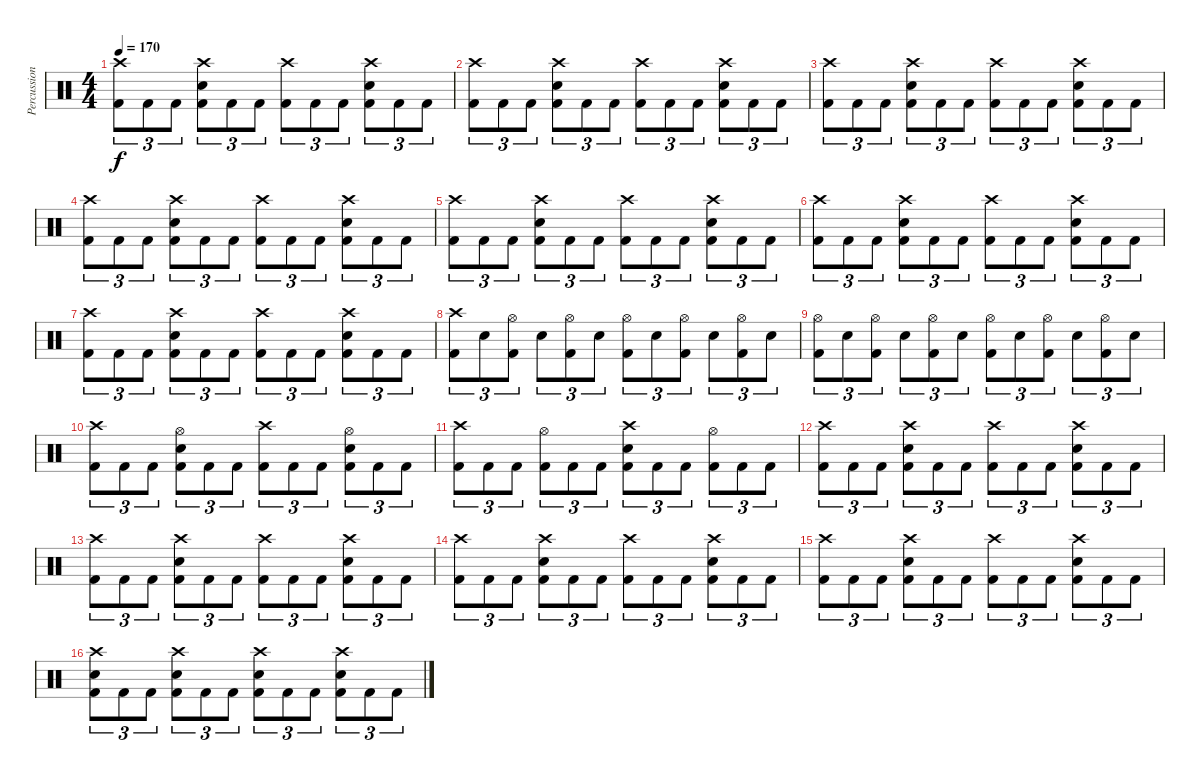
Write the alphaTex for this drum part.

\track ("Percussion" "Percussion") {instrument percussion}
\staff {score}
\articulation defaults
\ts (4 4)
\tempo 170
\clef neutral
\ks c
("Crash high (hit)" "Kick (hit) 2").8{tu (3 2) dy f} "Kick (hit) 2".8{tu (3 2)} "Kick (hit) 2".8{tu (3 2)} ("Crash high (hit)" "Electric Snare (hit)" "Kick (hit) 2").8{tu (3 2)} "Kick (hit) 2".8{tu (3 2)} "Kick (hit) 2".8{tu (3 2)} ("Crash high (hit)" "Kick (hit) 2").8{tu (3 2)} "Kick (hit) 2".8{tu (3 2)} "Kick (hit) 2".8{tu (3 2)} ("Crash high (hit)" "Electric Snare (hit)" "Kick (hit) 2").8{tu (3 2)} "Kick (hit) 2".8{tu (3 2)} "Kick (hit) 2".8{tu (3 2)} |
("Crash high (hit)" "Kick (hit) 2").8{tu (3 2)} "Kick (hit) 2".8{tu (3 2)} "Kick (hit) 2".8{tu (3 2)} ("Crash high (hit)" "Electric Snare (hit)" "Kick (hit) 2").8{tu (3 2)} "Kick (hit) 2".8{tu (3 2)} "Kick (hit) 2".8{tu (3 2)} ("Crash high (hit)" "Kick (hit) 2").8{tu (3 2)} "Kick (hit) 2".8{tu (3 2)} "Kick (hit) 2".8{tu (3 2)} ("Crash high (hit)" "Electric Snare (hit)" "Kick (hit) 2").8{tu (3 2)} "Kick (hit) 2".8{tu (3 2)} "Kick (hit) 2".8{tu (3 2)} |
("Crash high (hit)" "Kick (hit) 2").8{tu (3 2)} "Kick (hit) 2".8{tu (3 2)} "Kick (hit) 2".8{tu (3 2)} ("Crash high (hit)" "Electric Snare (hit)" "Kick (hit) 2").8{tu (3 2)} "Kick (hit) 2".8{tu (3 2)} "Kick (hit) 2".8{tu (3 2)} ("Crash high (hit)" "Kick (hit) 2").8{tu (3 2)} "Kick (hit) 2".8{tu (3 2)} "Kick (hit) 2".8{tu (3 2)} ("Crash high (hit)" "Electric Snare (hit)" "Kick (hit) 2").8{tu (3 2)} "Kick (hit) 2".8{tu (3 2)} "Kick (hit) 2".8{tu (3 2)} |
("Crash high (hit)" "Kick (hit) 2").8{tu (3 2)} "Kick (hit) 2".8{tu (3 2)} "Kick (hit) 2".8{tu (3 2)} ("Crash high (hit)" "Electric Snare (hit)" "Kick (hit) 2").8{tu (3 2)} "Kick (hit) 2".8{tu (3 2)} "Kick (hit) 2".8{tu (3 2)} ("Crash high (hit)" "Kick (hit) 2").8{tu (3 2)} "Kick (hit) 2".8{tu (3 2)} "Kick (hit) 2".8{tu (3 2)} ("Crash high (hit)" "Electric Snare (hit)" "Kick (hit) 2").8{tu (3 2)} "Kick (hit) 2".8{tu (3 2)} "Kick (hit) 2".8{tu (3 2)} |
("Crash high (hit)" "Kick (hit) 2").8{tu (3 2)} "Kick (hit) 2".8{tu (3 2)} "Kick (hit) 2".8{tu (3 2)} ("Crash high (hit)" "Electric Snare (hit)" "Kick (hit) 2").8{tu (3 2)} "Kick (hit) 2".8{tu (3 2)} "Kick (hit) 2".8{tu (3 2)} ("Crash high (hit)" "Kick (hit) 2").8{tu (3 2)} "Kick (hit) 2".8{tu (3 2)} "Kick (hit) 2".8{tu (3 2)} ("Crash high (hit)" "Electric Snare (hit)" "Kick (hit) 2").8{tu (3 2)} "Kick (hit) 2".8{tu (3 2)} "Kick (hit) 2".8{tu (3 2)} |
("Crash high (hit)" "Kick (hit) 2").8{tu (3 2)} "Kick (hit) 2".8{tu (3 2)} "Kick (hit) 2".8{tu (3 2)} ("Crash high (hit)" "Electric Snare (hit)" "Kick (hit) 2").8{tu (3 2)} "Kick (hit) 2".8{tu (3 2)} "Kick (hit) 2".8{tu (3 2)} ("Crash high (hit)" "Kick (hit) 2").8{tu (3 2)} "Kick (hit) 2".8{tu (3 2)} "Kick (hit) 2".8{tu (3 2)} ("Crash high (hit)" "Electric Snare (hit)" "Kick (hit) 2").8{tu (3 2)} "Kick (hit) 2".8{tu (3 2)} "Kick (hit) 2".8{tu (3 2)} |
("Crash high (hit)" "Kick (hit) 2").8{tu (3 2)} "Kick (hit) 2".8{tu (3 2)} "Kick (hit) 2".8{tu (3 2)} ("Crash high (hit)" "Electric Snare (hit)" "Kick (hit) 2").8{tu (3 2)} "Kick (hit) 2".8{tu (3 2)} "Kick (hit) 2".8{tu (3 2)} ("Crash high (hit)" "Kick (hit) 2").8{tu (3 2)} "Kick (hit) 2".8{tu (3 2)} "Kick (hit) 2".8{tu (3 2)} ("Crash high (hit)" "Electric Snare (hit)" "Kick (hit) 2").8{tu (3 2)} "Kick (hit) 2".8{tu (3 2)} "Kick (hit) 2".8{tu (3 2)} |
("Crash high (hit)" "Kick (hit) 2").8{tu (3 2)} "Electric Snare (hit)".8{tu (3 2)} ("Hi-Hat (open)" "Kick (hit) 2").8{tu (3 2)} "Electric Snare (hit)".8{tu (3 2)} ("Hi-Hat (open)" "Kick (hit) 2").8{tu (3 2)} "Electric Snare (hit)".8{tu (3 2)} ("Hi-Hat (open)" "Kick (hit) 2").8{tu (3 2)} "Electric Snare (hit)".8{tu (3 2)} ("Hi-Hat (open)" "Kick (hit) 2").8{tu (3 2)} "Electric Snare (hit)".8{tu (3 2)} ("Hi-Hat (open)" "Kick (hit) 2").8{tu (3 2)} "Electric Snare (hit)".8{tu (3 2)} |
("Hi-Hat (open)" "Kick (hit) 2").8{tu (3 2)} "Electric Snare (hit)".8{tu (3 2)} ("Hi-Hat (open)" "Kick (hit) 2").8{tu (3 2)} "Electric Snare (hit)".8{tu (3 2)} ("Hi-Hat (open)" "Kick (hit) 2").8{tu (3 2)} "Electric Snare (hit)".8{tu (3 2)} ("Hi-Hat (open)" "Kick (hit) 2").8{tu (3 2)} "Electric Snare (hit)".8{tu (3 2)} ("Hi-Hat (open)" "Kick (hit) 2").8{tu (3 2)} "Electric Snare (hit)".8{tu (3 2)} ("Hi-Hat (open)" "Kick (hit) 2").8{tu (3 2)} "Electric Snare (hit)".8{tu (3 2)} |
("Crash high (hit)" "Kick (hit) 2").8{tu (3 2)} "Kick (hit) 2".8{tu (3 2)} "Kick (hit) 2".8{tu (3 2)} ("Hi-Hat (open)" "Electric Snare (hit)" "Kick (hit) 2").8{tu (3 2)} "Kick (hit) 2".8{tu (3 2)} "Kick (hit) 2".8{tu (3 2)} ("Crash high (hit)" "Kick (hit) 2").8{tu (3 2)} "Kick (hit) 2".8{tu (3 2)} "Kick (hit) 2".8{tu (3 2)} ("Hi-Hat (open)" "Electric Snare (hit)" "Kick (hit) 2").8{tu (3 2)} "Kick (hit) 2".8{tu (3 2)} "Kick (hit) 2".8{tu (3 2)} |
("Crash high (hit)" "Kick (hit) 2").8{tu (3 2)} "Kick (hit) 2".8{tu (3 2)} "Kick (hit) 2".8{tu (3 2)} ("Hi-Hat (open)" "Kick (hit) 2").8{tu (3 2)} "Kick (hit) 2".8{tu (3 2)} "Kick (hit) 2".8{tu (3 2)} ("Crash high (hit)" "Electric Snare (hit)" "Kick (hit) 2").8{tu (3 2)} "Kick (hit) 2".8{tu (3 2)} "Kick (hit) 2".8{tu (3 2)} ("Hi-Hat (open)" "Kick (hit) 2").8{tu (3 2)} "Kick (hit) 2".8{tu (3 2)} "Kick (hit) 2".8{tu (3 2)} |
("Crash high (hit)" "Kick (hit) 2").8{tu (3 2)} "Kick (hit) 2".8{tu (3 2)} "Kick (hit) 2".8{tu (3 2)} ("Crash high (hit)" "Electric Snare (hit)" "Kick (hit) 2").8{tu (3 2)} "Kick (hit) 2".8{tu (3 2)} "Kick (hit) 2".8{tu (3 2)} ("Crash high (hit)" "Kick (hit) 2").8{tu (3 2)} "Kick (hit) 2".8{tu (3 2)} "Kick (hit) 2".8{tu (3 2)} ("Crash high (hit)" "Electric Snare (hit)" "Kick (hit) 2").8{tu (3 2)} "Kick (hit) 2".8{tu (3 2)} "Kick (hit) 2".8{tu (3 2)} |
("Crash high (hit)" "Kick (hit) 2").8{tu (3 2)} "Kick (hit) 2".8{tu (3 2)} "Kick (hit) 2".8{tu (3 2)} ("Crash high (hit)" "Electric Snare (hit)" "Kick (hit) 2").8{tu (3 2)} "Kick (hit) 2".8{tu (3 2)} "Kick (hit) 2".8{tu (3 2)} ("Crash high (hit)" "Kick (hit) 2").8{tu (3 2)} "Kick (hit) 2".8{tu (3 2)} "Kick (hit) 2".8{tu (3 2)} ("Crash high (hit)" "Electric Snare (hit)" "Kick (hit) 2").8{tu (3 2)} "Kick (hit) 2".8{tu (3 2)} "Kick (hit) 2".8{tu (3 2)} |
("Crash high (hit)" "Kick (hit) 2").8{tu (3 2)} "Kick (hit) 2".8{tu (3 2)} "Kick (hit) 2".8{tu (3 2)} ("Crash high (hit)" "Electric Snare (hit)" "Kick (hit) 2").8{tu (3 2)} "Kick (hit) 2".8{tu (3 2)} "Kick (hit) 2".8{tu (3 2)} ("Crash high (hit)" "Kick (hit) 2").8{tu (3 2)} "Kick (hit) 2".8{tu (3 2)} "Kick (hit) 2".8{tu (3 2)} ("Crash high (hit)" "Electric Snare (hit)" "Kick (hit) 2").8{tu (3 2)} "Kick (hit) 2".8{tu (3 2)} "Kick (hit) 2".8{tu (3 2)} |
("Crash high (hit)" "Kick (hit) 2").8{tu (3 2)} "Kick (hit) 2".8{tu (3 2)} "Kick (hit) 2".8{tu (3 2)} ("Crash high (hit)" "Electric Snare (hit)" "Kick (hit) 2").8{tu (3 2)} "Kick (hit) 2".8{tu (3 2)} "Kick (hit) 2".8{tu (3 2)} ("Crash high (hit)" "Kick (hit) 2").8{tu (3 2)} "Kick (hit) 2".8{tu (3 2)} "Kick (hit) 2".8{tu (3 2)} ("Crash high (hit)" "Electric Snare (hit)" "Kick (hit) 2").8{tu (3 2)} "Kick (hit) 2".8{tu (3 2)} "Kick (hit) 2".8{tu (3 2)} |
("Crash high (hit)" "Electric Snare (hit)" "Kick (hit) 2").8{tu (3 2)} "Kick (hit) 2".8{tu (3 2)} "Kick (hit) 2".8{tu (3 2)} ("Crash high (hit)" "Electric Snare (hit)" "Kick (hit) 2").8{tu (3 2)} "Kick (hit) 2".8{tu (3 2)} "Kick (hit) 2".8{tu (3 2)} ("Crash high (hit)" "Electric Snare (hit)" "Kick (hit) 2").8{tu (3 2)} "Kick (hit) 2".8{tu (3 2)} "Kick (hit) 2".8{tu (3 2)} ("Crash high (hit)" "Electric Snare (hit)" "Kick (hit) 2").8{tu (3 2)} "Kick (hit) 2".8{tu (3 2)} "Kick (hit) 2".8{tu (3 2)}
